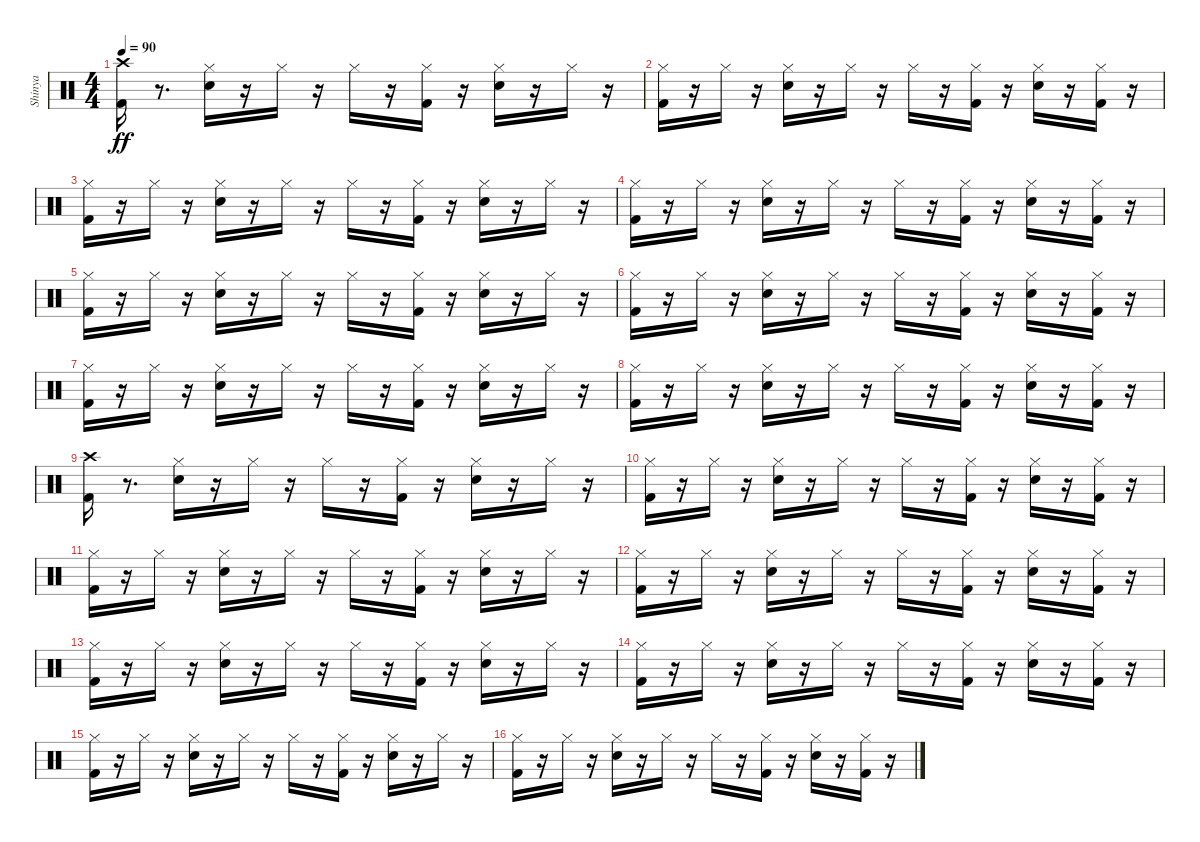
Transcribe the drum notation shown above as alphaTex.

\track ("Shinya" "Shinya") {instrument percussion}
\staff {score}
\articulation defaults
\ts (4 4)
\tempo 90
\clef neutral
\ks c
("Crash high (hit)" "Kick (hit) 2").16{dy ff} r.8{d} ("Snare (hit) 2" "Hi-Hat (closed)").16 r.16 "Hi-Hat (closed)".16 r.16 "Hi-Hat (closed)".16 r.16 ("Hi-Hat (closed)" "Kick (hit) 2").16 r.16 ("Snare (hit) 2" "Hi-Hat (closed)").16 r.16 "Hi-Hat (closed)".16 r.16 |
("Hi-Hat (closed)" "Kick (hit) 2").16 r.16 "Hi-Hat (closed)".16 r.16 ("Snare (hit) 2" "Hi-Hat (closed)").16 r.16 "Hi-Hat (closed)".16 r.16 "Hi-Hat (closed)".16 r.16 ("Hi-Hat (closed)" "Kick (hit) 2").16 r.16 ("Snare (hit) 2" "Hi-Hat (closed)").16 r.16 ("Hi-Hat (closed)" "Kick (hit) 2").16 r.16 |
("Hi-Hat (closed)" "Kick (hit) 2").16 r.16 "Hi-Hat (closed)".16 r.16 ("Snare (hit) 2" "Hi-Hat (closed)").16 r.16 "Hi-Hat (closed)".16 r.16 "Hi-Hat (closed)".16 r.16 ("Hi-Hat (closed)" "Kick (hit) 2").16 r.16 ("Snare (hit) 2" "Hi-Hat (closed)").16 r.16 "Hi-Hat (closed)".16 r.16 |
("Hi-Hat (closed)" "Kick (hit) 2").16 r.16 "Hi-Hat (closed)".16 r.16 ("Snare (hit) 2" "Hi-Hat (closed)").16 r.16 "Hi-Hat (closed)".16 r.16 "Hi-Hat (closed)".16 r.16 ("Hi-Hat (closed)" "Kick (hit) 2").16 r.16 ("Snare (hit) 2" "Hi-Hat (closed)").16 r.16 ("Hi-Hat (closed)" "Kick (hit) 2").16 r.16 |
("Hi-Hat (closed)" "Kick (hit) 2").16 r.16 "Hi-Hat (closed)".16 r.16 ("Snare (hit) 2" "Hi-Hat (closed)").16 r.16 "Hi-Hat (closed)".16 r.16 "Hi-Hat (closed)".16 r.16 ("Hi-Hat (closed)" "Kick (hit) 2").16 r.16 ("Snare (hit) 2" "Hi-Hat (closed)").16 r.16 "Hi-Hat (closed)".16 r.16 |
("Hi-Hat (closed)" "Kick (hit) 2").16 r.16 "Hi-Hat (closed)".16 r.16 ("Snare (hit) 2" "Hi-Hat (closed)").16 r.16 "Hi-Hat (closed)".16 r.16 "Hi-Hat (closed)".16 r.16 ("Hi-Hat (closed)" "Kick (hit) 2").16 r.16 ("Snare (hit) 2" "Hi-Hat (closed)").16 r.16 ("Hi-Hat (closed)" "Kick (hit) 2").16 r.16 |
("Hi-Hat (closed)" "Kick (hit) 2").16 r.16 "Hi-Hat (closed)".16 r.16 ("Snare (hit) 2" "Hi-Hat (closed)").16 r.16 "Hi-Hat (closed)".16 r.16 "Hi-Hat (closed)".16 r.16 ("Hi-Hat (closed)" "Kick (hit) 2").16 r.16 ("Snare (hit) 2" "Hi-Hat (closed)").16 r.16 "Hi-Hat (closed)".16 r.16 |
("Hi-Hat (closed)" "Kick (hit) 2").16 r.16 "Hi-Hat (closed)".16 r.16 ("Snare (hit) 2" "Hi-Hat (closed)").16 r.16 "Hi-Hat (closed)".16 r.16 "Hi-Hat (closed)".16 r.16 ("Hi-Hat (closed)" "Kick (hit) 2").16 r.16 ("Snare (hit) 2" "Hi-Hat (closed)").16 r.16 ("Hi-Hat (closed)" "Kick (hit) 2").16 r.16 |
("Crash high (hit)" "Kick (hit) 2").16 r.8{d} ("Snare (hit) 2" "Hi-Hat (closed)").16 r.16 "Hi-Hat (closed)".16 r.16 "Hi-Hat (closed)".16 r.16 ("Hi-Hat (closed)" "Kick (hit) 2").16 r.16 ("Snare (hit) 2" "Hi-Hat (closed)").16 r.16 "Hi-Hat (closed)".16 r.16 |
("Hi-Hat (closed)" "Kick (hit) 2").16 r.16 "Hi-Hat (closed)".16 r.16 ("Snare (hit) 2" "Hi-Hat (closed)").16 r.16 "Hi-Hat (closed)".16 r.16 "Hi-Hat (closed)".16 r.16 ("Hi-Hat (closed)" "Kick (hit) 2").16 r.16 ("Snare (hit) 2" "Hi-Hat (closed)").16 r.16 ("Hi-Hat (closed)" "Kick (hit) 2").16 r.16 |
("Hi-Hat (closed)" "Kick (hit) 2").16 r.16 "Hi-Hat (closed)".16 r.16 ("Snare (hit) 2" "Hi-Hat (closed)").16 r.16 "Hi-Hat (closed)".16 r.16 "Hi-Hat (closed)".16 r.16 ("Hi-Hat (closed)" "Kick (hit) 2").16 r.16 ("Snare (hit) 2" "Hi-Hat (closed)").16 r.16 "Hi-Hat (closed)".16 r.16 |
("Hi-Hat (closed)" "Kick (hit) 2").16 r.16 "Hi-Hat (closed)".16 r.16 ("Snare (hit) 2" "Hi-Hat (closed)").16 r.16 "Hi-Hat (closed)".16 r.16 "Hi-Hat (closed)".16 r.16 ("Hi-Hat (closed)" "Kick (hit) 2").16 r.16 ("Snare (hit) 2" "Hi-Hat (closed)").16 r.16 ("Hi-Hat (closed)" "Kick (hit) 2").16 r.16 |
("Hi-Hat (closed)" "Kick (hit) 2").16 r.16 "Hi-Hat (closed)".16 r.16 ("Snare (hit) 2" "Hi-Hat (closed)").16 r.16 "Hi-Hat (closed)".16 r.16 "Hi-Hat (closed)".16 r.16 ("Hi-Hat (closed)" "Kick (hit) 2").16 r.16 ("Snare (hit) 2" "Hi-Hat (closed)").16 r.16 "Hi-Hat (closed)".16 r.16 |
("Hi-Hat (closed)" "Kick (hit) 2").16 r.16 "Hi-Hat (closed)".16 r.16 ("Snare (hit) 2" "Hi-Hat (closed)").16 r.16 "Hi-Hat (closed)".16 r.16 "Hi-Hat (closed)".16 r.16 ("Hi-Hat (closed)" "Kick (hit) 2").16 r.16 ("Snare (hit) 2" "Hi-Hat (closed)").16 r.16 ("Hi-Hat (closed)" "Kick (hit) 2").16 r.16 |
("Hi-Hat (closed)" "Kick (hit) 2").16 r.16 "Hi-Hat (closed)".16 r.16 ("Snare (hit) 2" "Hi-Hat (closed)").16 r.16 "Hi-Hat (closed)".16 r.16 "Hi-Hat (closed)".16 r.16 ("Hi-Hat (closed)" "Kick (hit) 2").16 r.16 ("Snare (hit) 2" "Hi-Hat (closed)").16 r.16 "Hi-Hat (closed)".16 r.16 |
("Hi-Hat (closed)" "Kick (hit) 2").16 r.16 "Hi-Hat (closed)".16 r.16 ("Snare (hit) 2" "Hi-Hat (closed)").16 r.16 "Hi-Hat (closed)".16 r.16 "Hi-Hat (closed)".16 r.16 ("Hi-Hat (closed)" "Kick (hit) 2").16 r.16 ("Snare (hit) 2" "Hi-Hat (closed)").16 r.16 ("Hi-Hat (closed)" "Kick (hit) 2").16 r.16
